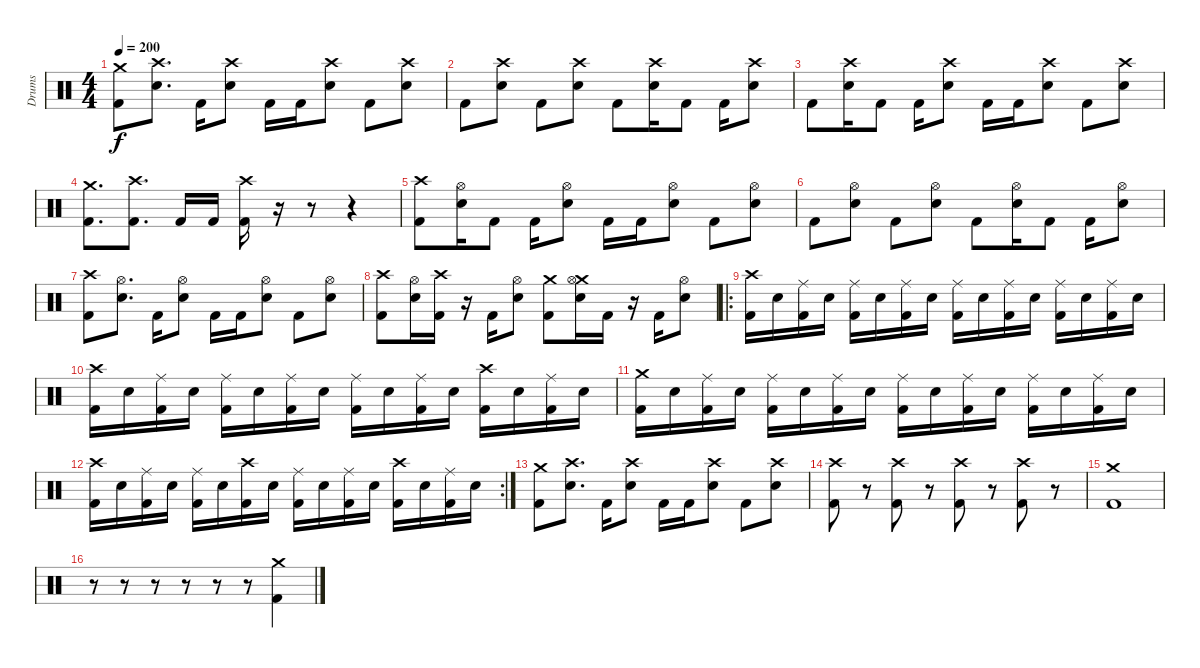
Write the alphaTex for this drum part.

\track ("Drums" "Drums") {instrument percussion}
\staff {score}
\articulation defaults
\ts (4 4)
\tempo 200
\clef neutral
\ks c
("Crash medium (hit)" "Kick (hit) 2").8{dy f} ("Crash high (hit)" "Electric Snare (hit)").8{d} "Kick (hit) 2".16 ("Crash high (hit)" "Electric Snare (hit)").8 "Kick (hit) 2".16 "Kick (hit) 2".16 ("Crash high (hit)" "Electric Snare (hit)").8 "Kick (hit) 2".8 ("Crash high (hit)" "Electric Snare (hit)").8 |
"Kick (hit) 2".8 ("Crash high (hit)" "Electric Snare (hit)").8 "Kick (hit) 2".8 ("Crash high (hit)" "Electric Snare (hit)").8 "Kick (hit) 2".8 ("Crash high (hit)" "Electric Snare (hit)").16 "Kick (hit) 2".8 "Kick (hit) 2".16 ("Crash high (hit)" "Electric Snare (hit)").8 |
"Kick (hit) 2".8 ("Crash high (hit)" "Electric Snare (hit)").16 "Kick (hit) 2".8 "Kick (hit) 2".16 ("Crash high (hit)" "Electric Snare (hit)").8 "Kick (hit) 2".16 "Kick (hit) 2".16 ("Crash high (hit)" "Electric Snare (hit)").8 "Kick (hit) 2".8 ("Crash high (hit)" "Electric Snare (hit)").8 |
("Crash medium (hit)" "Kick (hit) 2").8{d} ("Crash high (hit)" "Kick (hit) 2").8{d} "Kick (hit) 2".16 "Kick (hit) 2".16 ("Crash high (hit)" "Kick (hit) 2").16 r.16 r.8 r.4 |
("Crash high (hit)" "Kick (hit) 2").8 ("Hi-Hat (open)" "Electric Snare (hit)").16 "Kick (hit) 2".8 "Kick (hit) 2".16 ("Hi-Hat (open)" "Electric Snare (hit)").8 "Kick (hit) 2".16 "Kick (hit) 2".16 ("Hi-Hat (open)" "Electric Snare (hit)").8 "Kick (hit) 2".8 ("Hi-Hat (open)" "Electric Snare (hit)").8 |
"Kick (hit) 2".8 ("Hi-Hat (open)" "Electric Snare (hit)").8 "Kick (hit) 2".8 ("Hi-Hat (open)" "Electric Snare (hit)").8 "Kick (hit) 2".8 ("Hi-Hat (open)" "Electric Snare (hit)").16 "Kick (hit) 2".8 "Kick (hit) 2".16 ("Hi-Hat (open)" "Electric Snare (hit)").8 |
("Crash high (hit)" "Kick (hit) 2").8 ("Hi-Hat (open)" "Electric Snare (hit)").8{d} "Kick (hit) 2".16 ("Hi-Hat (open)" "Electric Snare (hit)").8 "Kick (hit) 2".16 "Kick (hit) 2".16 ("Hi-Hat (open)" "Electric Snare (hit)").8 "Kick (hit) 2".8 ("Hi-Hat (open)" "Electric Snare (hit)").8 |
("Crash high (hit)" "Kick (hit) 2").8 ("Hi-Hat (open)" "Electric Snare (hit)").16 ("Crash high (hit)" "Kick (hit) 2").16 r.16 "Kick (hit) 2".16 ("Hi-Hat (open)" "Electric Snare (hit)").8 ("Crash medium (hit)" "Kick (hit) 2").8 ("Crash medium (hit)" "Hi-Hat (open)" "Electric Snare (hit)").16 "Kick (hit) 2".16 r.16 "Kick (hit) 2".16 ("Hi-Hat (open)" "Electric Snare (hit)").8 |
\ro
("Crash high (hit)" "Kick (hit) 2").16 "Electric Snare (hit)".16 ("Ride (middle)" "Kick (hit) 2").16 "Electric Snare (hit)".16 ("Ride (middle)" "Kick (hit) 2").16 "Electric Snare (hit)".16 ("Ride (middle)" "Kick (hit) 2").16 "Electric Snare (hit)".16 ("Ride (middle)" "Kick (hit) 2").16 "Electric Snare (hit)".16 ("Ride (middle)" "Kick (hit) 2").16 "Electric Snare (hit)".16 ("Ride (middle)" "Kick (hit) 2").16 "Electric Snare (hit)".16 ("Ride (middle)" "Kick (hit) 2").16 "Electric Snare (hit)".16 |
("Crash high (hit)" "Kick (hit) 2").16 "Electric Snare (hit)".16 ("Ride (middle)" "Kick (hit) 2").16 "Electric Snare (hit)".16 ("Ride (middle)" "Kick (hit) 2").16 "Electric Snare (hit)".16 ("Ride (middle)" "Kick (hit) 2").16 "Electric Snare (hit)".16 ("Ride (middle)" "Kick (hit) 2").16 "Electric Snare (hit)".16 ("Ride (middle)" "Kick (hit) 2").16 "Electric Snare (hit)".16 ("Crash high (hit)" "Kick (hit) 2").16 "Electric Snare (hit)".16 ("Ride (middle)" "Kick (hit) 2").16 "Electric Snare (hit)".16 |
("Crash medium (hit)" "Kick (hit) 2").16 "Electric Snare (hit)".16 ("Ride (middle)" "Kick (hit) 2").16 "Electric Snare (hit)".16 ("Ride (middle)" "Kick (hit) 2").16 "Electric Snare (hit)".16 ("Ride (middle)" "Kick (hit) 2").16 "Electric Snare (hit)".16 ("Ride (middle)" "Kick (hit) 2").16 "Electric Snare (hit)".16 ("Ride (middle)" "Kick (hit) 2").16 "Electric Snare (hit)".16 ("Ride (middle)" "Kick (hit) 2").16 "Electric Snare (hit)".16 ("Ride (middle)" "Kick (hit) 2").16 "Electric Snare (hit)".16 |
\rc 2
("Crash high (hit)" "Kick (hit) 2").16 "Electric Snare (hit)".16 ("Ride (middle)" "Kick (hit) 2").16 "Electric Snare (hit)".16 ("Ride (middle)" "Kick (hit) 2").16 "Electric Snare (hit)".16 ("Crash high (hit)" "Kick (hit) 2").16 "Electric Snare (hit)".16 ("Ride (middle)" "Kick (hit) 2").16 "Electric Snare (hit)".16 ("Ride (middle)" "Kick (hit) 2").16 "Electric Snare (hit)".16 ("Crash high (hit)" "Kick (hit) 2").16 "Electric Snare (hit)".16 ("Ride (middle)" "Kick (hit) 2").16 "Electric Snare (hit)".16 |
("Crash medium (hit)" "Kick (hit) 2").8 ("Crash high (hit)" "Electric Snare (hit)").8{d} "Kick (hit) 2".16 ("Crash high (hit)" "Electric Snare (hit)").8 "Kick (hit) 2".16 "Kick (hit) 2".16 ("Crash high (hit)" "Electric Snare (hit)").8 "Kick (hit) 2".8 ("Crash high (hit)" "Electric Snare (hit)").8 |
("Crash high (hit)" "Kick (hit) 2").8 r.8 ("Crash high (hit)" "Kick (hit) 2").8 r.8 ("Crash high (hit)" "Kick (hit) 2").8 r.8 ("Crash high (hit)" "Kick (hit) 2").8 r.8 |
("Crash medium (hit)" "Kick (hit) 2").1 |
r.8 r.8 r.8 r.8 r.8 r.8 ("Crash medium (hit)" "Kick (hit) 2").4
